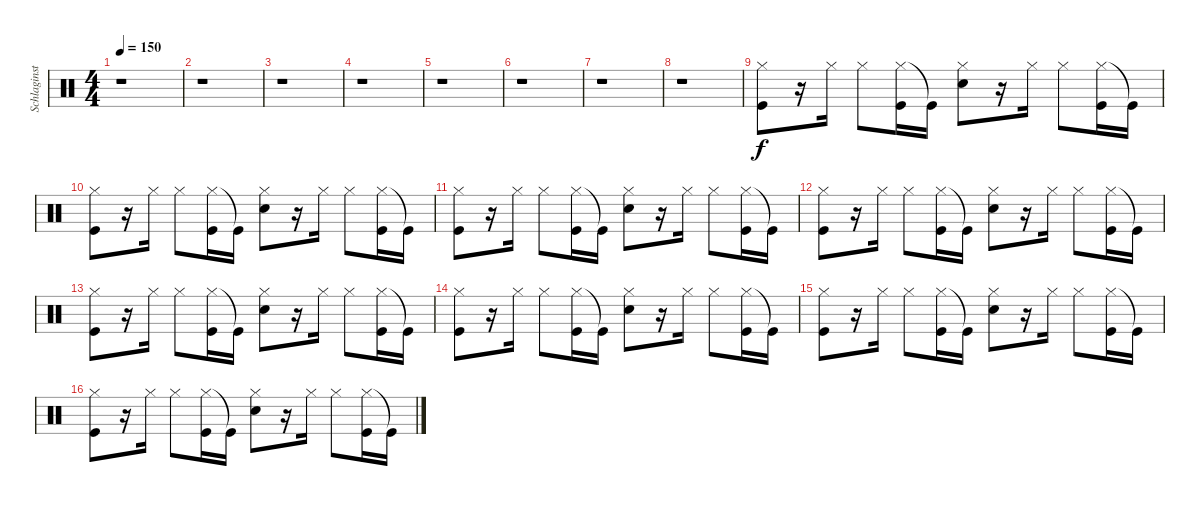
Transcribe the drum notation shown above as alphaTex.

\track ("Schlaginstrumente - Auswahl" "Schlaginst") {instrument percussion}
\staff {score}
\articulation defaults
\ts (4 4)
\tempo 150
\clef neutral
\ks c
r.1{dy f} |
r.1 |
r.1 |
r.1 |
r.1 |
r.1 |
r.1 |
r.1 |
("Hi-Hat (closed)" "Kick (hit)").8 r.16 "Hi-Hat (closed)".16 "Hi-Hat (closed)".8 ("Hi-Hat (closed)" "Kick (hit)").16 "Kick (hit)"{t}.16 ("Hi-Hat (closed)" "Hand Clap (hit)").8 r.16 "Hi-Hat (closed)".16 "Hi-Hat (closed)".8 ("Hi-Hat (closed)" "Kick (hit)").16 "Kick (hit)"{t}.16 |
("Hi-Hat (closed)" "Kick (hit)").8 r.16 "Hi-Hat (closed)".16 "Hi-Hat (closed)".8 ("Hi-Hat (closed)" "Kick (hit)").16 "Kick (hit)"{t}.16 ("Hi-Hat (closed)" "Hand Clap (hit)").8 r.16 "Hi-Hat (closed)".16 "Hi-Hat (closed)".8 ("Hi-Hat (closed)" "Kick (hit)").16 "Kick (hit)"{t}.16 |
("Kick (hit)" "Hi-Hat (closed)").8 r.16 "Hi-Hat (closed)".16 "Hi-Hat (closed)".8 ("Hi-Hat (closed)" "Kick (hit)").16 "Kick (hit)"{t}.16 ("Hi-Hat (closed)" "Hand Clap (hit)").8 r.16 "Hi-Hat (closed)".16 "Hi-Hat (closed)".8 ("Hi-Hat (closed)" "Kick (hit)").16 "Kick (hit)"{t}.16 |
("Hi-Hat (closed)" "Kick (hit)").8 r.16 "Hi-Hat (closed)".16 "Hi-Hat (closed)".8 ("Hi-Hat (closed)" "Kick (hit)").16 "Kick (hit)"{t}.16 ("Hi-Hat (closed)" "Hand Clap (hit)").8 r.16 "Hi-Hat (closed)".16 "Hi-Hat (closed)".8 ("Hi-Hat (closed)" "Kick (hit)").16 "Kick (hit)"{t}.16 |
("Kick (hit)" "Hi-Hat (closed)").8 r.16 "Hi-Hat (closed)".16 "Hi-Hat (closed)".8 ("Hi-Hat (closed)" "Kick (hit)").16 "Kick (hit)"{t}.16 ("Hi-Hat (closed)" "Hand Clap (hit)").8 r.16 "Hi-Hat (closed)".16 "Hi-Hat (closed)".8 ("Hi-Hat (closed)" "Kick (hit)").16 "Kick (hit)"{t}.16 |
("Hi-Hat (closed)" "Kick (hit)").8 r.16 "Hi-Hat (closed)".16 "Hi-Hat (closed)".8 ("Hi-Hat (closed)" "Kick (hit)").16 "Kick (hit)"{t}.16 ("Hi-Hat (closed)" "Hand Clap (hit)").8 r.16 "Hi-Hat (closed)".16 "Hi-Hat (closed)".8 ("Hi-Hat (closed)" "Kick (hit)").16 "Kick (hit)"{t}.16 |
("Kick (hit)" "Hi-Hat (closed)").8 r.16 "Hi-Hat (closed)".16 "Hi-Hat (closed)".8 ("Hi-Hat (closed)" "Kick (hit)").16 "Kick (hit)"{t}.16 ("Hi-Hat (closed)" "Hand Clap (hit)").8 r.16 "Hi-Hat (closed)".16 "Hi-Hat (closed)".8 ("Hi-Hat (closed)" "Kick (hit)").16 "Kick (hit)"{t}.16 |
("Kick (hit)" "Hi-Hat (closed)").8 r.16 "Hi-Hat (closed)".16 "Hi-Hat (closed)".8 ("Hi-Hat (closed)" "Kick (hit)").16 "Kick (hit)"{t}.16 ("Hi-Hat (closed)" "Hand Clap (hit)").8 r.16 "Hi-Hat (closed)".16 "Hi-Hat (closed)".8 ("Hi-Hat (closed)" "Kick (hit)").16 "Kick (hit)"{t}.16
